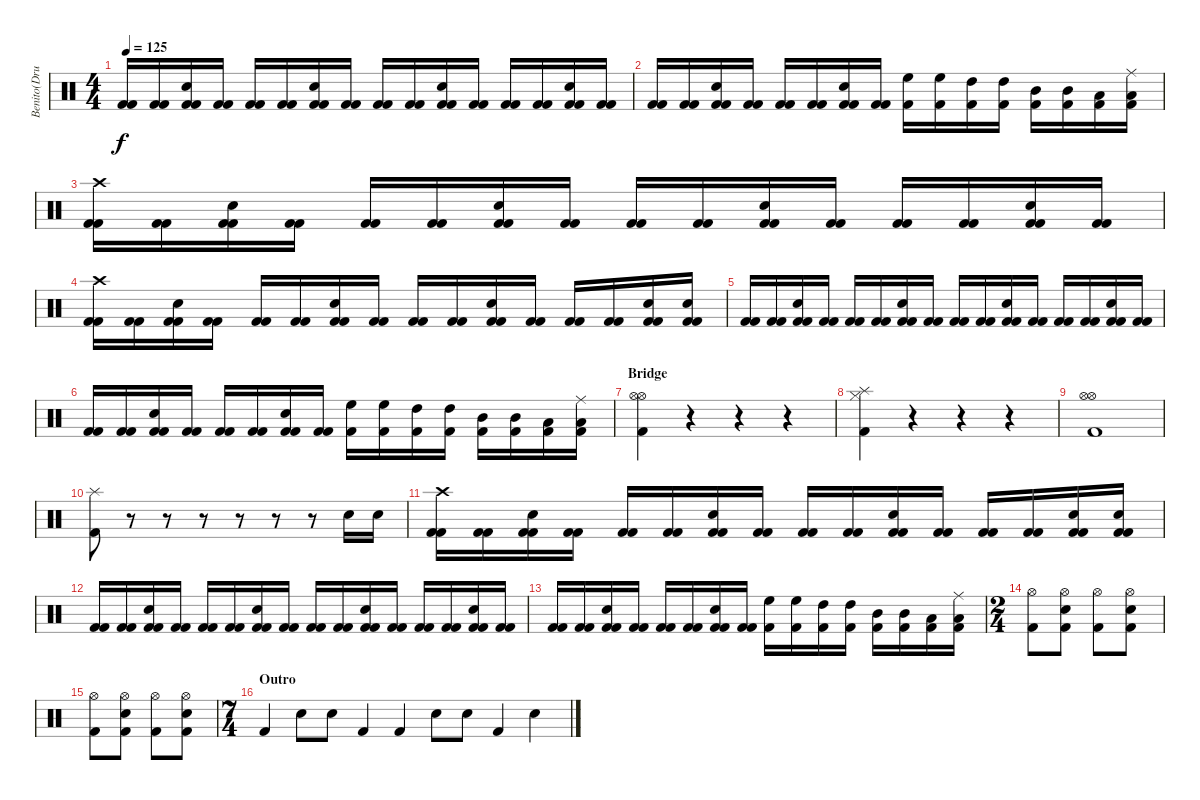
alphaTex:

\track ("Benito(Drums)" "Benito(Dru") {instrument percussion}
\staff {score}
\articulation defaults
\ts (4 4)
\tempo 125
\clef neutral
\ks c
("Kick (hit) 2" "Kick (hit) 2").16{dy f} ("Kick (hit) 2" "Kick (hit) 2").16 ("Kick (hit) 2" "Kick (hit) 2" "Electric Snare (hit)").16 ("Kick (hit) 2" "Kick (hit) 2").16 ("Kick (hit) 2" "Kick (hit) 2").16 ("Kick (hit) 2" "Kick (hit) 2").16 ("Kick (hit) 2" "Kick (hit) 2" "Electric Snare (hit)").16 ("Kick (hit) 2" "Kick (hit) 2").16 ("Kick (hit) 2" "Kick (hit) 2").16 ("Kick (hit) 2" "Kick (hit) 2").16 ("Kick (hit) 2" "Kick (hit) 2" "Electric Snare (hit)").16 ("Kick (hit) 2" "Kick (hit) 2").16 ("Kick (hit) 2" "Kick (hit) 2").16 ("Kick (hit) 2" "Kick (hit) 2").16 ("Kick (hit) 2" "Kick (hit) 2" "Electric Snare (hit)").16 ("Kick (hit) 2" "Kick (hit) 2").16 |
("Kick (hit) 2" "Kick (hit) 2").16 ("Kick (hit) 2" "Kick (hit) 2").16 ("Kick (hit) 2" "Kick (hit) 2" "Electric Snare (hit)").16 ("Kick (hit) 2" "Kick (hit) 2").16 ("Kick (hit) 2" "Kick (hit) 2").16 ("Kick (hit) 2" "Kick (hit) 2").16 ("Kick (hit) 2" "Kick (hit) 2" "Electric Snare (hit)").16 ("Kick (hit) 2" "Kick (hit) 2").16 ("Kick (hit) 2" "High Floor Tom (hit)").16 ("Kick (hit) 2" "High Floor Tom (hit)").16 ("Kick (hit) 2" "High Tom (hit)").16 ("Kick (hit) 2" "High Tom (hit)").16 ("Kick (hit) 2" "Mid Tom (hit)").16 ("Kick (hit) 2" "Mid Tom (hit)").16 ("Kick (hit) 2" "Low Tom (hit)").16 ("Kick (hit) 2" "Low Tom (hit)" "Ride (middle)").16 |
("Kick (hit) 2" "Kick (hit) 2" "Crash high (hit)").16 ("Kick (hit) 2" "Kick (hit) 2").16 ("Kick (hit) 2" "Kick (hit) 2" "Electric Snare (hit)").16 ("Kick (hit) 2" "Kick (hit) 2").16 ("Kick (hit) 2" "Kick (hit) 2").16 ("Kick (hit) 2" "Kick (hit) 2").16 ("Kick (hit) 2" "Kick (hit) 2" "Electric Snare (hit)").16 ("Kick (hit) 2" "Kick (hit) 2").16 ("Kick (hit) 2" "Kick (hit) 2").16 ("Kick (hit) 2" "Kick (hit) 2").16 ("Kick (hit) 2" "Kick (hit) 2" "Electric Snare (hit)").16 ("Kick (hit) 2" "Kick (hit) 2").16 ("Kick (hit) 2" "Kick (hit) 2").16 ("Kick (hit) 2" "Kick (hit) 2").16 ("Kick (hit) 2" "Kick (hit) 2" "Electric Snare (hit)").16 ("Kick (hit) 2" "Kick (hit) 2").16 |
("Kick (hit) 2" "Kick (hit) 2" "Crash high (hit)").16 ("Kick (hit) 2" "Kick (hit) 2").16 ("Kick (hit) 2" "Kick (hit) 2" "Electric Snare (hit)").16 ("Kick (hit) 2" "Kick (hit) 2").16 ("Kick (hit) 2" "Kick (hit) 2").16 ("Kick (hit) 2" "Kick (hit) 2").16 ("Kick (hit) 2" "Kick (hit) 2" "Electric Snare (hit)").16 ("Kick (hit) 2" "Kick (hit) 2").16 ("Kick (hit) 2" "Kick (hit) 2").16 ("Kick (hit) 2" "Kick (hit) 2").16 ("Kick (hit) 2" "Kick (hit) 2" "Electric Snare (hit)").16 ("Kick (hit) 2" "Kick (hit) 2").16 ("Kick (hit) 2" "Kick (hit) 2").16 ("Kick (hit) 2" "Kick (hit) 2").16 ("Kick (hit) 2" "Kick (hit) 2" "Electric Snare (hit)").16 ("Kick (hit) 2" "Kick (hit) 2" "Electric Snare (hit)").16 |
("Kick (hit) 2" "Kick (hit) 2").16 ("Kick (hit) 2" "Kick (hit) 2").16 ("Kick (hit) 2" "Kick (hit) 2" "Electric Snare (hit)").16 ("Kick (hit) 2" "Kick (hit) 2").16 ("Kick (hit) 2" "Kick (hit) 2").16 ("Kick (hit) 2" "Kick (hit) 2").16 ("Kick (hit) 2" "Kick (hit) 2" "Electric Snare (hit)").16 ("Kick (hit) 2" "Kick (hit) 2").16 ("Kick (hit) 2" "Kick (hit) 2").16 ("Kick (hit) 2" "Kick (hit) 2").16 ("Kick (hit) 2" "Kick (hit) 2" "Electric Snare (hit)").16 ("Kick (hit) 2" "Kick (hit) 2").16 ("Kick (hit) 2" "Kick (hit) 2").16 ("Kick (hit) 2" "Kick (hit) 2").16 ("Kick (hit) 2" "Kick (hit) 2" "Electric Snare (hit)").16 ("Kick (hit) 2" "Kick (hit) 2").16 |
("Kick (hit) 2" "Kick (hit) 2").16 ("Kick (hit) 2" "Kick (hit) 2").16 ("Kick (hit) 2" "Kick (hit) 2" "Electric Snare (hit)").16 ("Kick (hit) 2" "Kick (hit) 2").16 ("Kick (hit) 2" "Kick (hit) 2").16 ("Kick (hit) 2" "Kick (hit) 2").16 ("Kick (hit) 2" "Kick (hit) 2" "Electric Snare (hit)").16 ("Kick (hit) 2" "Kick (hit) 2").16 ("Kick (hit) 2" "High Floor Tom (hit)").16 ("Kick (hit) 2" "High Floor Tom (hit)").16 ("Kick (hit) 2" "High Tom (hit)").16 ("Kick (hit) 2" "High Tom (hit)").16 ("Kick (hit) 2" "Mid Tom (hit)").16 ("Kick (hit) 2" "Mid Tom (hit)").16 ("Kick (hit) 2" "Low Tom (hit)").16 ("Kick (hit) 2" "Low Tom (hit)" "Ride (middle)").16 |
\section ("" "Bridge")
("Hi-Hat (open)" "Hi-Hat (open)" "Kick (hit) 2").4 r.4 r.4 r.4 |
("Splash (hit)" "Hi-Hat (closed)" "Kick (hit) 2").4 r.4 r.4 r.4 |
("Hi-Hat (open)" "Hi-Hat (open)" "Kick (hit) 2").1 |
("Splash (hit)" "Kick (hit) 2").8 r.8 r.8 r.8 r.8 r.8 r.8 "Snare (hit) 2".16 "Snare (hit) 2".16 |
("Kick (hit) 2" "Kick (hit) 2" "Crash high (hit)").16 ("Kick (hit) 2" "Kick (hit) 2").16 ("Kick (hit) 2" "Kick (hit) 2" "Electric Snare (hit)").16 ("Kick (hit) 2" "Kick (hit) 2").16 ("Kick (hit) 2" "Kick (hit) 2").16 ("Kick (hit) 2" "Kick (hit) 2").16 ("Kick (hit) 2" "Kick (hit) 2" "Electric Snare (hit)").16 ("Kick (hit) 2" "Kick (hit) 2").16 ("Kick (hit) 2" "Kick (hit) 2").16 ("Kick (hit) 2" "Kick (hit) 2").16 ("Kick (hit) 2" "Kick (hit) 2" "Electric Snare (hit)").16 ("Kick (hit) 2" "Kick (hit) 2").16 ("Kick (hit) 2" "Kick (hit) 2").16 ("Kick (hit) 2" "Kick (hit) 2").16 ("Kick (hit) 2" "Kick (hit) 2" "Electric Snare (hit)").16 ("Kick (hit) 2" "Kick (hit) 2" "Electric Snare (hit)").16 |
("Kick (hit) 2" "Kick (hit) 2").16 ("Kick (hit) 2" "Kick (hit) 2").16 ("Kick (hit) 2" "Kick (hit) 2" "Electric Snare (hit)").16 ("Kick (hit) 2" "Kick (hit) 2").16 ("Kick (hit) 2" "Kick (hit) 2").16 ("Kick (hit) 2" "Kick (hit) 2").16 ("Kick (hit) 2" "Kick (hit) 2" "Electric Snare (hit)").16 ("Kick (hit) 2" "Kick (hit) 2").16 ("Kick (hit) 2" "Kick (hit) 2").16 ("Kick (hit) 2" "Kick (hit) 2").16 ("Kick (hit) 2" "Kick (hit) 2" "Electric Snare (hit)").16 ("Kick (hit) 2" "Kick (hit) 2").16 ("Kick (hit) 2" "Kick (hit) 2").16 ("Kick (hit) 2" "Kick (hit) 2").16 ("Kick (hit) 2" "Kick (hit) 2" "Electric Snare (hit)").16 ("Kick (hit) 2" "Kick (hit) 2").16 |
("Kick (hit) 2" "Kick (hit) 2").16 ("Kick (hit) 2" "Kick (hit) 2").16 ("Kick (hit) 2" "Kick (hit) 2" "Electric Snare (hit)").16 ("Kick (hit) 2" "Kick (hit) 2").16 ("Kick (hit) 2" "Kick (hit) 2").16 ("Kick (hit) 2" "Kick (hit) 2").16 ("Kick (hit) 2" "Kick (hit) 2" "Electric Snare (hit)").16 ("Kick (hit) 2" "Kick (hit) 2").16 ("Kick (hit) 2" "High Floor Tom (hit)").16 ("Kick (hit) 2" "High Floor Tom (hit)").16 ("Kick (hit) 2" "High Tom (hit)").16 ("Kick (hit) 2" "High Tom (hit)").16 ("Kick (hit) 2" "Mid Tom (hit)").16 ("Kick (hit) 2" "Mid Tom (hit)").16 ("Kick (hit) 2" "Low Tom (hit)").16 ("Kick (hit) 2" "Low Tom (hit)" "Ride (middle)").16 |
\ts (2 4)
("Hi-Hat (open)" "Kick (hit) 2").8 ("Hi-Hat (open)" "Snare (hit) 2" "Kick (hit) 2").8 ("Hi-Hat (open)" "Kick (hit) 2").8 ("Hi-Hat (open)" "Snare (hit) 2" "Kick (hit) 2").8 |
("Hi-Hat (open)" "Kick (hit) 2").8 ("Hi-Hat (open)" "Snare (hit) 2" "Kick (hit) 2").8 ("Hi-Hat (open)" "Kick (hit) 2").8 ("Hi-Hat (open)" "Snare (hit) 2" "Kick (hit) 2").8 |
\ts (7 4)
\section ("" "Outro")
"Kick (hit) 2".4{volume 8} "Electric Snare (hit)".8 "Electric Snare (hit)".8 "Kick (hit) 2".4 "Kick (hit) 2".4 "Electric Snare (hit)".8 "Electric Snare (hit)".8 "Kick (hit) 2".4 "Electric Snare (hit)".4
